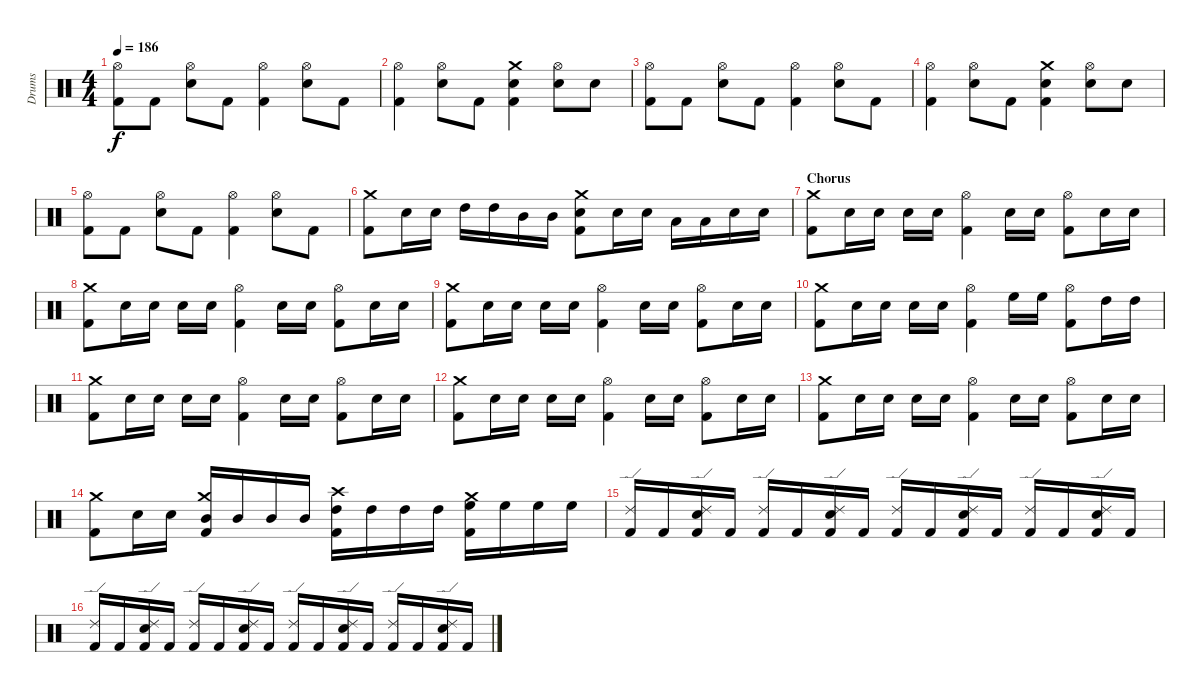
\track ("Drums" "Drums") {instrument percussion}
\staff {score}
\articulation defaults
\ts (4 4)
\tempo 186
\clef neutral
\ks c
("Hi-Hat (open)" "Kick (hit) 2").8{dy f} "Kick (hit) 2".8 ("Hi-Hat (open)" "Electric Snare (hit)").8 "Kick (hit) 2".8 ("Hi-Hat (open)" "Kick (hit) 2").4 ("Hi-Hat (open)" "Electric Snare (hit)").8 "Kick (hit) 2".8 |
("Hi-Hat (open)" "Kick (hit) 2").4 ("Hi-Hat (open)" "Electric Snare (hit)").8 "Kick (hit) 2".8 ("Crash medium (hit)" "Electric Snare (hit)" "Kick (hit) 2").4 ("Hi-Hat (open)" "Electric Snare (hit)").8 "Electric Snare (hit)".8 |
("Hi-Hat (open)" "Kick (hit) 2").8 "Kick (hit) 2".8 ("Hi-Hat (open)" "Electric Snare (hit)").8 "Kick (hit) 2".8 ("Hi-Hat (open)" "Kick (hit) 2").4 ("Hi-Hat (open)" "Electric Snare (hit)").8 "Kick (hit) 2".8 |
("Hi-Hat (open)" "Kick (hit) 2").4 ("Hi-Hat (open)" "Electric Snare (hit)").8 "Kick (hit) 2".8 ("Crash medium (hit)" "Electric Snare (hit)" "Kick (hit) 2").4 ("Hi-Hat (open)" "Electric Snare (hit)").8 "Electric Snare (hit)".8 |
("Hi-Hat (open)" "Kick (hit) 2").8 "Kick (hit) 2".8 ("Hi-Hat (open)" "Electric Snare (hit)").8 "Kick (hit) 2".8 ("Hi-Hat (open)" "Kick (hit) 2").4 ("Hi-Hat (open)" "Electric Snare (hit)").8 "Kick (hit) 2".8 |
("Crash medium (hit)" "Kick (hit) 2").8 "Electric Snare (hit)".16 "Electric Snare (hit)".16 "High Tom (hit)".16 "High Tom (hit)".16 "Mid Tom (hit)".16 "Mid Tom (hit)".16 ("Crash medium (hit)" "Electric Snare (hit)" "Kick (hit) 2").8 "Electric Snare (hit)".16 "Electric Snare (hit)".16 "Low Tom (hit)".16 "Low Tom (hit)".16 "Electric Snare (hit)".16 "Electric Snare (hit)".16 |
\section ("" "Chorus")
("Crash medium (hit)" "Kick (hit) 2").8 "Electric Snare (hit)".16 "Electric Snare (hit)".16 "Electric Snare (hit)".16 "Electric Snare (hit)".16 ("Hi-Hat (open)" "Kick (hit) 2").4 "Electric Snare (hit)".16 "Electric Snare (hit)".16 ("Hi-Hat (open)" "Kick (hit) 2").8 "Electric Snare (hit)".16 "Electric Snare (hit)".16 |
("Crash medium (hit)" "Kick (hit) 2").8 "Electric Snare (hit)".16 "Electric Snare (hit)".16 "Electric Snare (hit)".16 "Electric Snare (hit)".16 ("Hi-Hat (open)" "Kick (hit) 2").4 "Electric Snare (hit)".16 "Electric Snare (hit)".16 ("Hi-Hat (open)" "Kick (hit) 2").8 "Electric Snare (hit)".16 "Electric Snare (hit)".16 |
("Crash medium (hit)" "Kick (hit) 2").8 "Electric Snare (hit)".16 "Electric Snare (hit)".16 "Electric Snare (hit)".16 "Electric Snare (hit)".16 ("Hi-Hat (open)" "Kick (hit) 2").4 "Electric Snare (hit)".16 "Electric Snare (hit)".16 ("Hi-Hat (open)" "Kick (hit) 2").8 "Electric Snare (hit)".16 "Electric Snare (hit)".16 |
("Crash medium (hit)" "Kick (hit) 2").8 "Electric Snare (hit)".16 "Electric Snare (hit)".16 "Electric Snare (hit)".16 "Electric Snare (hit)".16 ("Hi-Hat (open)" "Kick (hit) 2").4 "High Floor Tom (hit)".16 "High Floor Tom (hit)".16 ("Hi-Hat (open)" "Kick (hit) 2").8 "High Tom (hit)".16 "High Tom (hit)".16 |
("Crash medium (hit)" "Kick (hit) 2").8 "Electric Snare (hit)".16 "Electric Snare (hit)".16 "Electric Snare (hit)".16 "Electric Snare (hit)".16 ("Hi-Hat (open)" "Kick (hit) 2").4 "Electric Snare (hit)".16 "Electric Snare (hit)".16 ("Hi-Hat (open)" "Kick (hit) 2").8 "Electric Snare (hit)".16 "Electric Snare (hit)".16 |
("Crash medium (hit)" "Kick (hit) 2").8 "Electric Snare (hit)".16 "Electric Snare (hit)".16 "Electric Snare (hit)".16 "Electric Snare (hit)".16 ("Hi-Hat (open)" "Kick (hit) 2").4 "Electric Snare (hit)".16 "Electric Snare (hit)".16 ("Hi-Hat (open)" "Kick (hit) 2").8 "Electric Snare (hit)".16 "Electric Snare (hit)".16 |
("Crash medium (hit)" "Kick (hit) 2").8 "Electric Snare (hit)".16 "Electric Snare (hit)".16 "Electric Snare (hit)".16 "Electric Snare (hit)".16 ("Hi-Hat (open)" "Kick (hit) 2").4 "Electric Snare (hit)".16 "Electric Snare (hit)".16 ("Hi-Hat (open)" "Kick (hit) 2").8 "Electric Snare (hit)".16 "Electric Snare (hit)".16 |
("Crash medium (hit)" "Kick (hit) 2").8 "Electric Snare (hit)".16 "Electric Snare (hit)".16 ("Crash medium (hit)" "Mid Tom (hit)" "Kick (hit) 2").16 "Mid Tom (hit)".16 "Mid Tom (hit)".16 "Mid Tom (hit)".16 ("Crash high (hit)" "High Tom (hit)" "Kick (hit) 2").16 "High Tom (hit)".16 "High Tom (hit)".16 "High Tom (hit)".16 ("Crash medium (hit)" "High Floor Tom (hit)" "Kick (hit) 2").16 "High Floor Tom (hit)".16 "High Floor Tom (hit)".16 "High Floor Tom (hit)".16 |
("Ride (edge) 2" "Kick (hit) 2").16 "Kick (hit) 2".16 ("Electric Snare (hit)" "Ride (edge) 2" "Kick (hit) 2").16 "Kick (hit) 2".16 ("Ride (edge) 2" "Kick (hit) 2").16 "Kick (hit) 2".16 ("Electric Snare (hit)" "Ride (edge) 2" "Kick (hit) 2").16 "Kick (hit) 2".16 ("Ride (edge) 2" "Kick (hit) 2").16 "Kick (hit) 2".16 ("Electric Snare (hit)" "Ride (edge) 2" "Kick (hit) 2").16 "Kick (hit) 2".16 ("Ride (edge) 2" "Kick (hit) 2").16 "Kick (hit) 2".16 ("Electric Snare (hit)" "Ride (edge) 2" "Kick (hit) 2").16 "Kick (hit) 2".16 |
("Ride (edge) 2" "Kick (hit) 2").16 "Kick (hit) 2".16 ("Electric Snare (hit)" "Ride (edge) 2" "Kick (hit) 2").16 "Kick (hit) 2".16 ("Ride (edge) 2" "Kick (hit) 2").16 "Kick (hit) 2".16 ("Electric Snare (hit)" "Ride (edge) 2" "Kick (hit) 2").16 "Kick (hit) 2".16 ("Ride (edge) 2" "Kick (hit) 2").16 "Kick (hit) 2".16 ("Electric Snare (hit)" "Ride (edge) 2" "Kick (hit) 2").16 "Kick (hit) 2".16 ("Ride (edge) 2" "Kick (hit) 2").16 "Kick (hit) 2".16 ("Electric Snare (hit)" "Ride (edge) 2" "Kick (hit) 2").16 "Kick (hit) 2".16
